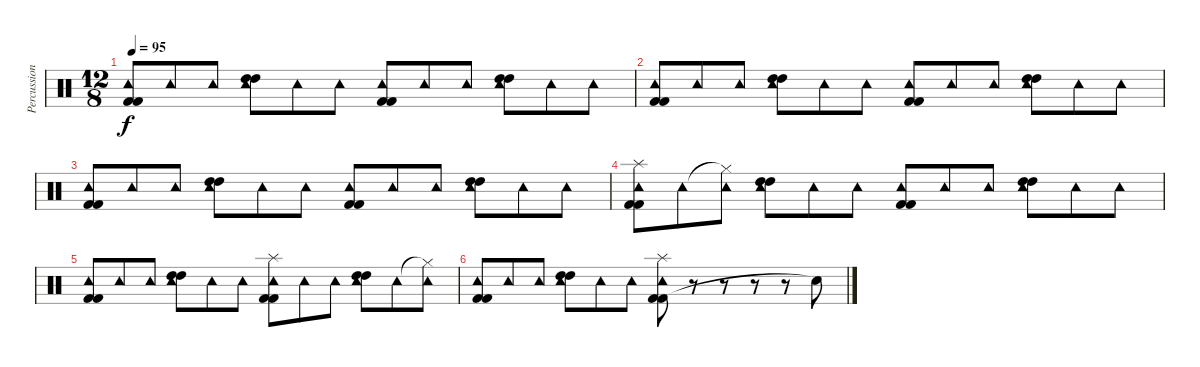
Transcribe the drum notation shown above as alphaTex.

\track ("Percussion" "Percussion") {instrument percussion}
\staff {score}
\articulation defaults
\ts (12 8)
\tempo 95
\clef neutral
\ks c
("Kick (hit) 2" "Kick (hit) 2" "Tambourine (hit)").8{dy f} "Tambourine (hit)".8 "Tambourine (hit)".8 ("High Tom (hit)" "High Tom (hit)" "Tambourine (hit)").8 "Tambourine (hit)".8 "Tambourine (hit)".8 ("Kick (hit) 2" "Kick (hit) 2" "Tambourine (hit)").8 "Tambourine (hit)".8 "Tambourine (hit)".8 ("High Tom (hit)" "High Tom (hit)" "Tambourine (hit)").8 "Tambourine (hit)".8 "Tambourine (hit)".8 |
("Kick (hit) 2" "Kick (hit) 2" "Tambourine (hit)").8 "Tambourine (hit)".8 "Tambourine (hit)".8 ("High Tom (hit)" "High Tom (hit)" "Tambourine (hit)").8 "Tambourine (hit)".8 "Tambourine (hit)".8 ("Kick (hit) 2" "Kick (hit) 2" "Tambourine (hit)").8 "Tambourine (hit)".8 "Tambourine (hit)".8 ("High Tom (hit)" "High Tom (hit)" "Tambourine (hit)").8 "Tambourine (hit)".8 "Tambourine (hit)".8 |
("Kick (hit) 2" "Kick (hit) 2" "Tambourine (hit)").8 "Tambourine (hit)".8 "Tambourine (hit)".8 ("High Tom (hit)" "High Tom (hit)" "Tambourine (hit)").8 "Tambourine (hit)".8 "Tambourine (hit)".8 ("Kick (hit) 2" "Kick (hit) 2" "Tambourine (hit)").8 "Tambourine (hit)".8 "Tambourine (hit)".8 ("High Tom (hit)" "High Tom (hit)" "Tambourine (hit)").8 "Tambourine (hit)".8 "Tambourine (hit)".8 |
("Kick (hit) 2" "Kick (hit) 2" "Splash (hit)" "Tambourine (hit)").8 "Tambourine (hit)".8 ("Hi-Hat (closed)"{t} "Tambourine (hit)").8 ("High Tom (hit)" "High Tom (hit)" "Tambourine (hit)").8 "Tambourine (hit)".8 "Tambourine (hit)".8 ("Kick (hit) 2" "Kick (hit) 2" "Tambourine (hit)").8 "Tambourine (hit)".8 "Tambourine (hit)".8 ("High Tom (hit)" "High Tom (hit)" "Tambourine (hit)").8 "Tambourine (hit)".8 "Tambourine (hit)".8 |
("Kick (hit) 2" "Kick (hit) 2" "Tambourine (hit)").8 "Tambourine (hit)".8 "Tambourine (hit)".8 ("High Tom (hit)" "High Tom (hit)" "Tambourine (hit)").8 "Tambourine (hit)".8 "Tambourine (hit)".8 ("Kick (hit) 2" "Kick (hit) 2" "Splash (hit)" "Tambourine (hit)").8 "Tambourine (hit)".8 "Tambourine (hit)".8 ("High Tom (hit)" "High Tom (hit)" "Tambourine (hit)").8 "Tambourine (hit)".8 ("Hi-Hat (closed)"{t} "Tambourine (hit)").8 |
("Kick (hit) 2" "Kick (hit) 2" "Tambourine (hit)").8 "Tambourine (hit)".8 "Tambourine (hit)".8 ("High Tom (hit)" "High Tom (hit)" "Tambourine (hit)").8 "Tambourine (hit)".8 "Tambourine (hit)".8 ("Kick (hit) 2" "Kick (hit) 2" "Splash (hit)" "Tambourine (hit)").8 r.8 r.8 r.8 r.8 "Snare (hit)"{t}.8
